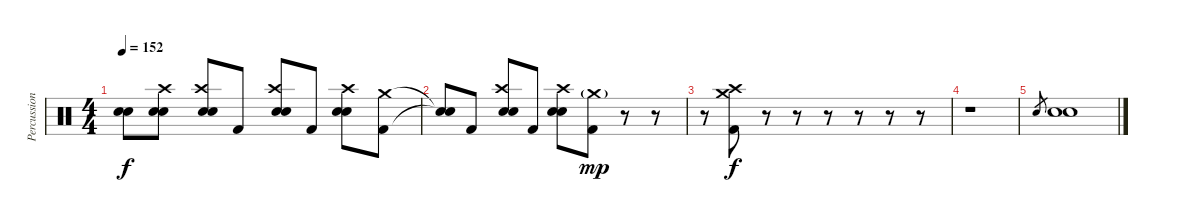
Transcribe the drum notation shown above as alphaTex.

\track ("Percussion" "Percussion") {instrument percussion}
\staff {score}
\articulation defaults
\ts (4 4)
\tempo 152
\clef neutral
\ks c
("Snare (hit)"{t} "Snare (hit)"{t}).8{dy f} ("Crash high (hit)" "Snare (hit) 2" "Electric Snare (hit)").8 ("Crash high (hit)" "Snare (hit) 2" "Electric Snare (hit)").8 "Kick (hit) 2".8 ("Crash high (hit)" "Snare (hit) 2" "Electric Snare (hit)").8 "Kick (hit) 2".8 ("Crash high (hit)" "Snare (hit) 2" "Electric Snare (hit)").8 ("Crash medium (hit)" "Kick (hit) 2").8 |
("Snare (hit)"{t} "Snare (hit)"{t}).8 "Kick (hit) 2".8 ("Crash high (hit)" "Snare (hit) 2" "Electric Snare (hit)").8 "Kick (hit) 2".8 ("Crash high (hit)" "Snare (hit) 2" "Electric Snare (hit)").8 ("Crash medium (hit)"{g} "Kick (hit) 2").8{dy mp} r.8 r.8 |
r.8 ("Crash medium (hit)" "Crash high (hit)" "Kick (hit) 2").8{dy f} r.8 r.8 r.8 r.8 r.8 r.8 |
r.1 |
"Snare (hit) 2".8{gr} ("Snare (hit) 2" "Electric Snare (hit)").1
